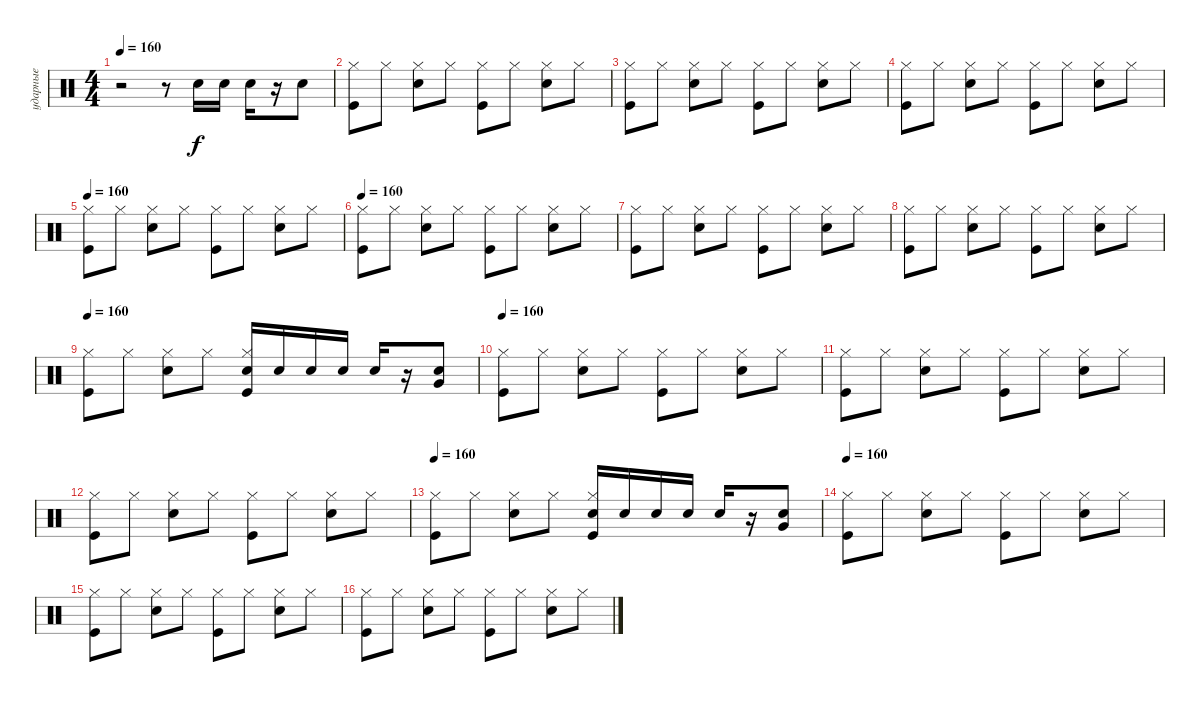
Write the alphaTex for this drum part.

\track ("ударные" "ударные") {instrument percussion}
\staff {score}
\articulation defaults
\ts (4 4)
\tempo 160
\clef neutral
\ks c
r.2{dy f} r.8 "Snare (hit) 2".16 "Snare (hit) 2".16 "Snare (hit) 2".16 r.16 "Snare (hit) 2".8 |
("Kick (hit)" "Hi-Hat (closed)").8 "Hi-Hat (closed)".8 ("Hi-Hat (closed)" "Electric Snare (hit)").8 "Hi-Hat (closed)".8 ("Kick (hit)" "Hi-Hat (closed)").8 "Hi-Hat (closed)".8 ("Hi-Hat (closed)" "Electric Snare (hit)").8 "Hi-Hat (closed)".8 |
("Hi-Hat (closed)" "Kick (hit)").8 "Hi-Hat (closed)".8 ("Electric Snare (hit)" "Hi-Hat (closed)").8 "Hi-Hat (closed)".8 ("Hi-Hat (closed)" "Kick (hit)").8 "Hi-Hat (closed)".8 ("Hi-Hat (closed)" "Electric Snare (hit)").8 "Hi-Hat (closed)".8 |
("Hi-Hat (closed)" "Kick (hit)").8 "Hi-Hat (closed)".8 ("Hi-Hat (closed)" "Electric Snare (hit)").8 "Hi-Hat (closed)".8 ("Kick (hit)" "Hi-Hat (closed)").8 "Hi-Hat (closed)".8 ("Electric Snare (hit)" "Hi-Hat (closed)").8 "Hi-Hat (closed)".8 |
\tempo 160
("Kick (hit)" "Hi-Hat (closed)").8 "Hi-Hat (closed)".8 ("Hi-Hat (closed)" "Electric Snare (hit)").8 "Hi-Hat (closed)".8 ("Kick (hit)" "Hi-Hat (closed)").8 "Hi-Hat (closed)".8 ("Hi-Hat (closed)" "Electric Snare (hit)").8 "Hi-Hat (closed)".8 |
\tempo 160
("Kick (hit)" "Hi-Hat (closed)").8 "Hi-Hat (closed)".8 ("Hi-Hat (closed)" "Electric Snare (hit)").8 "Hi-Hat (closed)".8 ("Kick (hit)" "Hi-Hat (closed)").8 "Hi-Hat (closed)".8 ("Hi-Hat (closed)" "Electric Snare (hit)").8 "Hi-Hat (closed)".8 |
("Hi-Hat (closed)" "Kick (hit)").8 "Hi-Hat (closed)".8 ("Electric Snare (hit)" "Hi-Hat (closed)").8 "Hi-Hat (closed)".8 ("Hi-Hat (closed)" "Kick (hit)").8 "Hi-Hat (closed)".8 ("Hi-Hat (closed)" "Electric Snare (hit)").8 "Hi-Hat (closed)".8 |
("Hi-Hat (closed)" "Kick (hit)").8 "Hi-Hat (closed)".8 ("Hi-Hat (closed)" "Electric Snare (hit)").8 "Hi-Hat (closed)".8 ("Kick (hit)" "Hi-Hat (closed)").8 "Hi-Hat (closed)".8 ("Electric Snare (hit)" "Hi-Hat (closed)").8 "Hi-Hat (closed)".8 |
\tempo 160
("Hi-Hat (closed)" "Kick (hit)").8 "Hi-Hat (closed)".8 ("Electric Snare (hit)" "Hi-Hat (closed)").8 "Hi-Hat (closed)".8 ("Electric Snare (hit)" "Hi-Hat (closed)" "Kick (hit)").16 "Electric Snare (hit)".16 "Electric Snare (hit)".16 "Snare (hit) 2".16 "Snare (hit) 2".16 r.16 ("Very Low Tom (hit)" "Snare (hit) 2").8 |
\tempo 160
("Kick (hit)" "Hi-Hat (closed)").8 "Hi-Hat (closed)".8 ("Hi-Hat (closed)" "Electric Snare (hit)").8 "Hi-Hat (closed)".8 ("Kick (hit)" "Hi-Hat (closed)").8 "Hi-Hat (closed)".8 ("Hi-Hat (closed)" "Electric Snare (hit)").8 "Hi-Hat (closed)".8 |
("Hi-Hat (closed)" "Kick (hit)").8 "Hi-Hat (closed)".8 ("Electric Snare (hit)" "Hi-Hat (closed)").8 "Hi-Hat (closed)".8 ("Hi-Hat (closed)" "Kick (hit)").8 "Hi-Hat (closed)".8 ("Hi-Hat (closed)" "Electric Snare (hit)").8 "Hi-Hat (closed)".8 |
("Hi-Hat (closed)" "Kick (hit)").8 "Hi-Hat (closed)".8 ("Hi-Hat (closed)" "Electric Snare (hit)").8 "Hi-Hat (closed)".8 ("Kick (hit)" "Hi-Hat (closed)").8 "Hi-Hat (closed)".8 ("Electric Snare (hit)" "Hi-Hat (closed)").8 "Hi-Hat (closed)".8 |
\tempo 160
("Hi-Hat (closed)" "Kick (hit)").8 "Hi-Hat (closed)".8 ("Electric Snare (hit)" "Hi-Hat (closed)").8 "Hi-Hat (closed)".8 ("Electric Snare (hit)" "Hi-Hat (closed)" "Kick (hit)").16 "Electric Snare (hit)".16 "Electric Snare (hit)".16 "Snare (hit) 2".16 "Snare (hit) 2".16 r.16 ("Very Low Tom (hit)" "Snare (hit) 2").8 |
\tempo 160
("Kick (hit)" "Hi-Hat (closed)").8 "Hi-Hat (closed)".8 ("Hi-Hat (closed)" "Electric Snare (hit)").8 "Hi-Hat (closed)".8 ("Kick (hit)" "Hi-Hat (closed)").8 "Hi-Hat (closed)".8 ("Hi-Hat (closed)" "Electric Snare (hit)").8 "Hi-Hat (closed)".8 |
("Hi-Hat (closed)" "Kick (hit)").8 "Hi-Hat (closed)".8 ("Electric Snare (hit)" "Hi-Hat (closed)").8 "Hi-Hat (closed)".8 ("Hi-Hat (closed)" "Kick (hit)").8 "Hi-Hat (closed)".8 ("Hi-Hat (closed)" "Electric Snare (hit)").8 "Hi-Hat (closed)".8 |
("Hi-Hat (closed)" "Kick (hit)").8 "Hi-Hat (closed)".8 ("Hi-Hat (closed)" "Electric Snare (hit)").8 "Hi-Hat (closed)".8 ("Kick (hit)" "Hi-Hat (closed)").8 "Hi-Hat (closed)".8 ("Electric Snare (hit)" "Hi-Hat (closed)").8 "Hi-Hat (closed)".8
